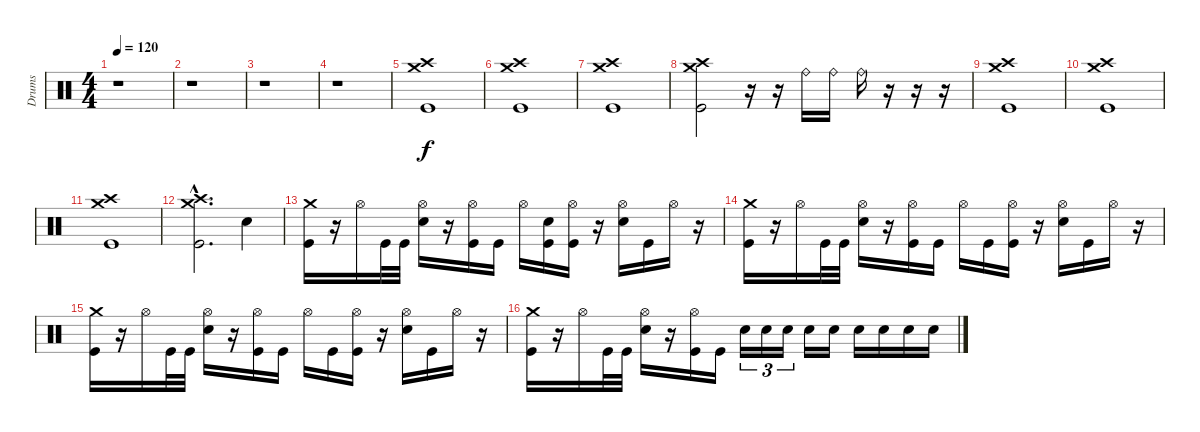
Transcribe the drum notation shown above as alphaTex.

\track ("Drums" "Drums") {instrument percussion}
\staff {score}
\articulation defaults
\ts (4 4)
\tempo 120
\clef neutral
\ks c
r.1{dy f} |
r.1 |
r.1 |
r.1 |
("Crash medium (hit)" "Crash high (hit)" "Kick (hit)").1 |
("Crash medium (hit)" "Crash high (hit)" "Kick (hit)").1 |
("Crash medium (hit)" "Crash high (hit)" "Kick (hit)").1 |
("Crash medium (hit)" "Crash high (hit)" "Kick (hit)").2 r.16 r.16 "Ride (bell)".16 "Ride (bell)".16 "Ride (bell)".16 r.16 r.16 r.16 |
("Crash medium (hit)" "Crash high (hit)" "Kick (hit)").1 |
("Crash medium (hit)" "Crash high (hit)" "Kick (hit)").1 |
("Crash medium (hit)" "Crash high (hit)" "Kick (hit)").1 |
("Crash medium (hit)"{hac} "Crash high (hit)"{hac} "Kick (hit)"{hac}).2{d} "Electric Snare (hit)".4 |
("Crash medium (hit)" "Kick (hit)").16 r.16 "Hi-Hat (open)".16 "Kick (hit)".32 "Kick (hit)".32 ("Hi-Hat (open)" "Electric Snare (hit)").16 r.16 ("Hi-Hat (open)" "Kick (hit)").16 "Kick (hit)".16 "Hi-Hat (open)".16 ("Electric Snare (hit)" "Kick (hit)").16 ("Hi-Hat (open)" "Kick (hit)").16 r.16 ("Hi-Hat (open)" "Electric Snare (hit)").16 "Kick (hit)".16 "Hi-Hat (open)".16 r.16 |
("Crash medium (hit)" "Kick (hit)").16 r.16 "Hi-Hat (open)".16 "Kick (hit)".32 "Kick (hit)".32 ("Hi-Hat (open)" "Electric Snare (hit)").16 r.16 ("Hi-Hat (open)" "Kick (hit)").16 "Kick (hit)".16 "Hi-Hat (open)".16 "Kick (hit)".16 ("Hi-Hat (open)" "Kick (hit)").16 r.16 ("Hi-Hat (open)" "Electric Snare (hit)").16 "Kick (hit)".16 "Hi-Hat (open)".16 r.16 |
("Crash medium (hit)" "Kick (hit)").16 r.16 "Hi-Hat (open)".16 "Kick (hit)".32 "Kick (hit)".32 ("Hi-Hat (open)" "Electric Snare (hit)").16 r.16 ("Hi-Hat (open)" "Kick (hit)").16 "Kick (hit)".16 "Hi-Hat (open)".16 "Kick (hit)".16 ("Hi-Hat (open)" "Kick (hit)").16 r.16 ("Hi-Hat (open)" "Electric Snare (hit)").16 "Kick (hit)".16 "Hi-Hat (open)".16 r.16 |
("Crash medium (hit)" "Kick (hit)").16 r.16 "Hi-Hat (open)".16 "Kick (hit)".32 "Kick (hit)".32 ("Hi-Hat (open)" "Electric Snare (hit)").16 r.16 ("Hi-Hat (open)" "Kick (hit)").16 "Kick (hit)".16 "Electric Snare (hit)".16{tu (3 2)} "Electric Snare (hit)".16{tu (3 2)} "Electric Snare (hit)".16{tu (3 2)} "Electric Snare (hit)".16 "Electric Snare (hit)".16 "Electric Snare (hit)".16 "Electric Snare (hit)".16 "Electric Snare (hit)".16 "Electric Snare (hit)".16
